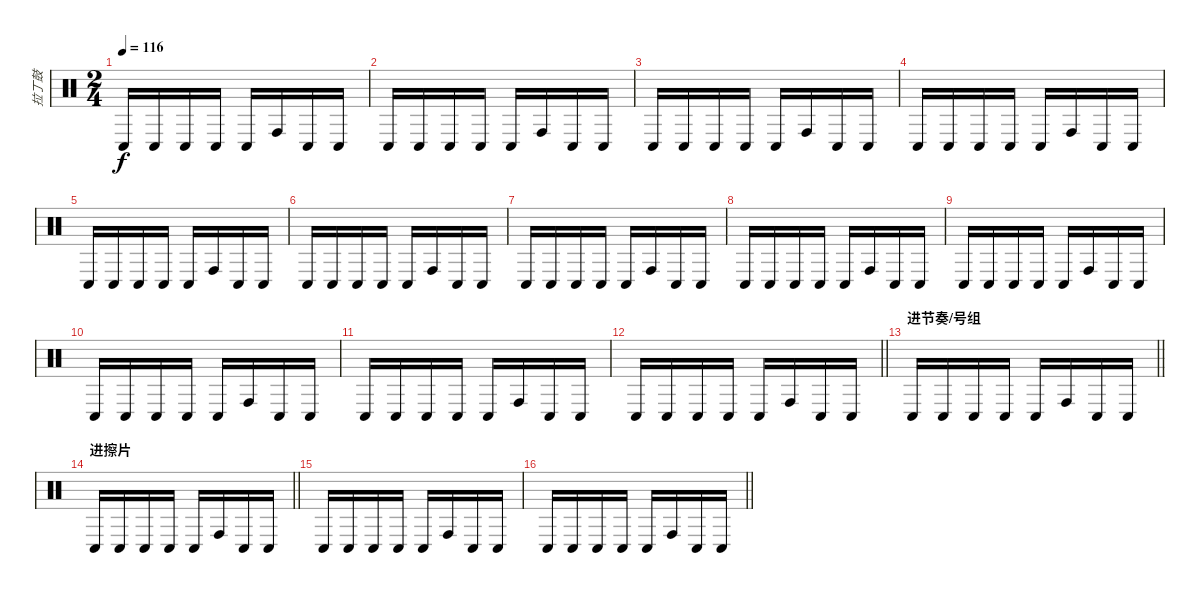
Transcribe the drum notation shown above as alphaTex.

\track ("拉丁鼓" "拉丁鼓") {instrument percussion}
\staff {score}
\articulation defaults
\ts (2 4)
\tempo 116
\clef neutral
\ks c "Conga low (hit)".16{dy f} "Conga low (hit)".16 "Conga low (hit)".16 "Conga low (hit)".16 "Conga low (hit)".16 "Conga high (hit)".16 "Conga low (hit)".16 "Conga low (hit)".16
|
"Conga low (hit)".16 "Conga low (hit)".16 "Conga low (hit)".16 "Conga low (hit)".16 "Conga low (hit)".16 "Conga high (hit)".16 "Conga low (hit)".16 "Conga low (hit)".16 |
"Conga low (hit)".16 "Conga low (hit)".16 "Conga low (hit)".16 "Conga low (hit)".16 "Conga low (hit)".16 "Conga high (hit)".16 "Conga low (hit)".16 "Conga low (hit)".16 |
"Conga low (hit)".16 "Conga low (hit)".16 "Conga low (hit)".16 "Conga low (hit)".16 "Conga low (hit)".16 "Conga high (hit)".16 "Conga low (hit)".16 "Conga low (hit)".16 |
"Conga low (hit)".16 "Conga low (hit)".16 "Conga low (hit)".16 "Conga low (hit)".16 "Conga low (hit)".16 "Conga high (hit)".16 "Conga low (hit)".16 "Conga low (hit)".16 |
"Conga low (hit)".16 "Conga low (hit)".16 "Conga low (hit)".16 "Conga low (hit)".16 "Conga low (hit)".16 "Conga high (hit)".16 "Conga low (hit)".16 "Conga low (hit)".16 |
"Conga low (hit)".16 "Conga low (hit)".16 "Conga low (hit)".16 "Conga low (hit)".16 "Conga low (hit)".16 "Conga high (hit)".16 "Conga low (hit)".16 "Conga low (hit)".16 |
"Conga low (hit)".16 "Conga low (hit)".16 "Conga low (hit)".16 "Conga low (hit)".16 "Conga low (hit)".16 "Conga high (hit)".16 "Conga low (hit)".16 "Conga low (hit)".16 |
"Conga low (hit)".16 "Conga low (hit)".16 "Conga low (hit)".16 "Conga low (hit)".16 "Conga low (hit)".16 "Conga high (hit)".16 "Conga low (hit)".16 "Conga low (hit)".16 |
"Conga low (hit)".16 "Conga low (hit)".16 "Conga low (hit)".16 "Conga low (hit)".16 "Conga low (hit)".16 "Conga high (hit)".16 "Conga low (hit)".16 "Conga low (hit)".16 |
"Conga low (hit)".16 "Conga low (hit)".16 "Conga low (hit)".16 "Conga low (hit)".16 "Conga low (hit)".16 "Conga high (hit)".16 "Conga low (hit)".16 "Conga low (hit)".16 |
\barLineRight lightlight "Conga low (hit)".16 "Conga low (hit)".16 "Conga low (hit)".16 "Conga low (hit)".16 "Conga low (hit)".16 "Conga high (hit)".16 "Conga low (hit)".16 "Conga low (hit)".16
|
\section ("" "进节奏/号组")
\barLineRight lightlight "Conga low (hit)".16 "Conga low (hit)".16 "Conga low (hit)".16 "Conga low (hit)".16 "Conga low (hit)".16 "Conga high (hit)".16 "Conga low (hit)".16 "Conga low (hit)".16
|
\section ("" "进擦片")
\barLineRight lightlight "Conga low (hit)".16 "Conga low (hit)".16 "Conga low (hit)".16 "Conga low (hit)".16 "Conga low (hit)".16 "Conga high (hit)".16 "Conga low (hit)".16 "Conga low (hit)".16
|
"Conga low (hit)".16 "Conga low (hit)".16 "Conga low (hit)".16 "Conga low (hit)".16 "Conga low (hit)".16 "Conga high (hit)".16 "Conga low (hit)".16 "Conga low (hit)".16 |
\barLineRight lightlight "Conga low (hit)".16 "Conga low (hit)".16 "Conga low (hit)".16 "Conga low (hit)".16 "Conga low (hit)".16 "Conga high (hit)".16 "Conga low (hit)".16 "Conga low (hit)".16
